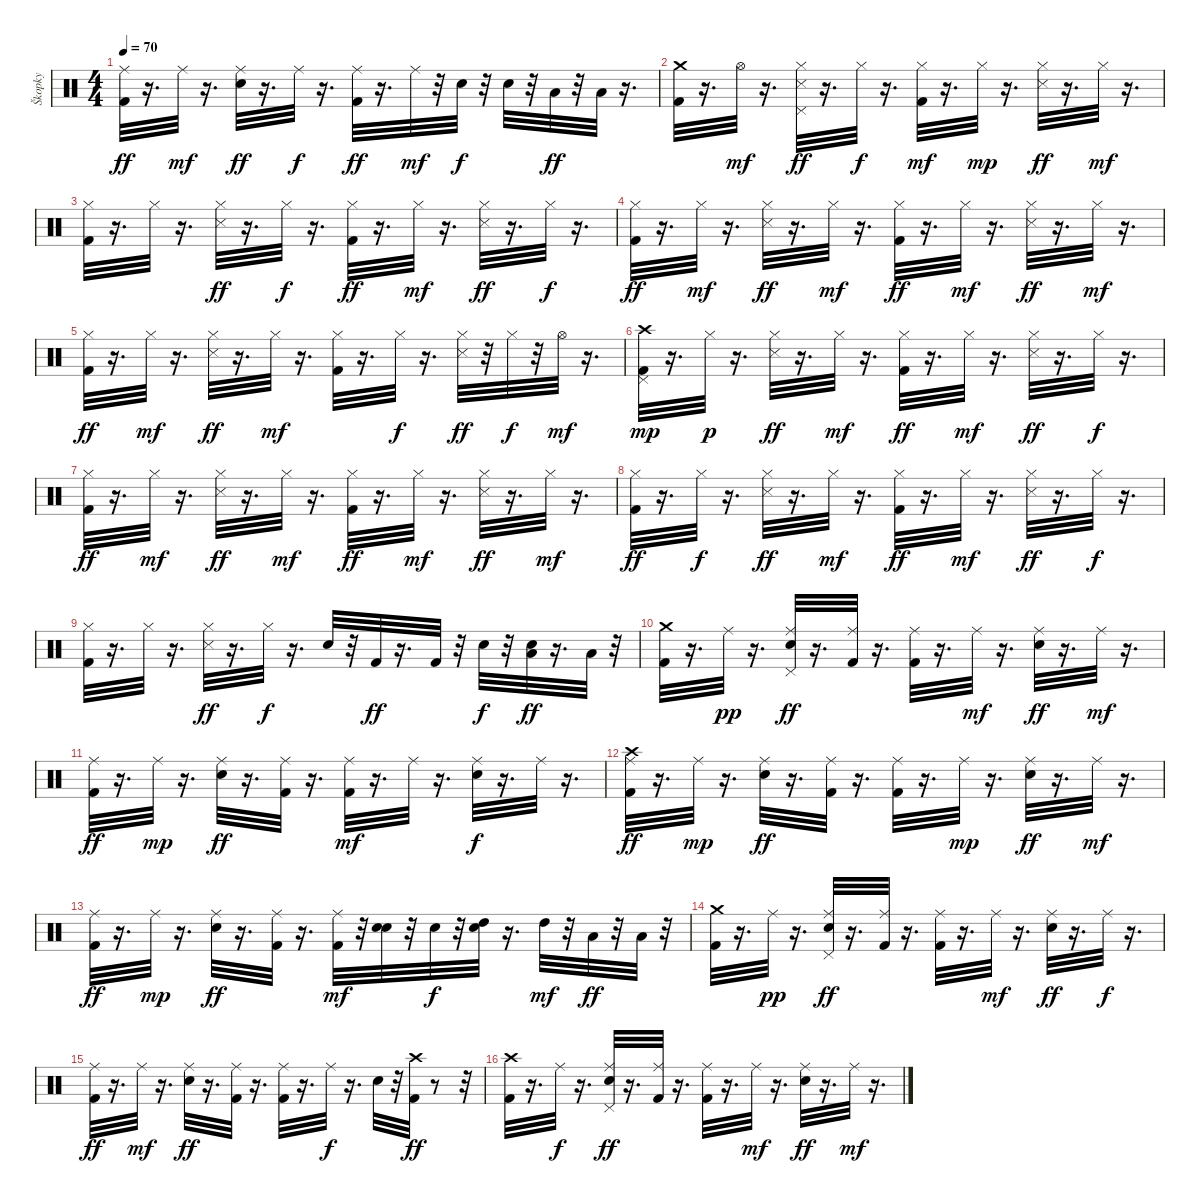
\track ("Škopky" "Škopky") {instrument percussion}
\staff {score}
\articulation defaults
\ts (4 4)
\tempo 70
\clef neutral
\ks c
("Kick (hit) 2" "Ride (middle)").32{dy ff} r.16{d} "Ride (middle)".32{dy mf} r.16{d} ("Snare (hit) 2" "Ride (middle)").32{dy ff} r.16{d} "Ride (middle)".32{dy f} r.16{d} ("Kick (hit) 2" "Ride (middle)").32{dy ff} r.16{d} "Ride (middle)".32{dy mf} r.32 "Snare (hit) 2".32{dy f} r.32 "Snare (hit) 2".32 r.32 "Low Tom (hit)".32{dy ff} r.32 "Low Floor Tom (hit)".32 r.16{d} |
("Kick (hit) 2" "Crash medium (hit)").32 r.16{d} "Hi-Hat (open)".32{dy mf} r.16{d} ("Pedal Hi-Hat (hit)" "Hi-Hat (closed)" "Snare (side stick) 3").32{dy ff} r.16{d} "Hi-Hat (closed)".32{dy f} r.16{d} ("Kick (hit) 2" "Hi-Hat (closed)").32{dy mf} r.16{d} "Hi-Hat (closed)".32{dy mp} r.16{d} ("Hi-Hat (closed)" "Snare (side stick) 3").32{dy ff} r.16{d} "Hi-Hat (closed)".32{dy mf} r.16{d} |
("Kick (hit) 2" "Hi-Hat (closed)").32 r.16{d} "Hi-Hat (closed)".32 r.16{d} ("Hi-Hat (closed)" "Snare (side stick) 3").32{dy ff} r.16{d} "Hi-Hat (closed)".32{dy f} r.16{d} ("Kick (hit) 2" "Hi-Hat (closed)").32{dy ff} r.16{d} "Hi-Hat (closed)".32{dy mf} r.16{d} ("Hi-Hat (closed)" "Snare (side stick) 3").32{dy ff} r.16{d} "Hi-Hat (closed)".32{dy f} r.16{d} |
("Kick (hit) 2" "Hi-Hat (closed)").32{dy ff} r.16{d} "Hi-Hat (closed)".32{dy mf} r.16{d} ("Hi-Hat (closed)" "Snare (side stick) 3").32{dy ff} r.16{d} "Hi-Hat (closed)".32{dy mf} r.16{d} ("Kick (hit) 2" "Hi-Hat (closed)").32{dy ff} r.16{d} "Hi-Hat (closed)".32{dy mf} r.16{d} ("Hi-Hat (closed)" "Snare (side stick) 3").32{dy ff} r.16{d} "Hi-Hat (closed)".32{dy mf} r.16{d} |
("Kick (hit) 2" "Hi-Hat (closed)").32{dy ff} r.16{d} "Hi-Hat (closed)".32{dy mf} r.16{d} ("Hi-Hat (closed)" "Snare (side stick) 3").32{dy ff} r.16{d} "Hi-Hat (closed)".32{dy mf} r.16{d} ("Kick (hit) 2" "Hi-Hat (closed)").32 r.16{d} "Hi-Hat (closed)".32{dy f} r.16{d} ("Hi-Hat (closed)" "Snare (side stick) 3").32{dy ff} r.32 "Hi-Hat (closed)".32{dy f} r.32 "Hi-Hat (open)".32{dy mf} r.16{d} |
("Pedal Hi-Hat (hit)" "Kick (hit) 2" "Crash high (hit)").32{dy mp} r.16{d} "Hi-Hat (closed)".32{dy p} r.16{d} ("Hi-Hat (closed)" "Snare (side stick) 3").32{dy ff} r.16{d} "Hi-Hat (closed)".32{dy mf} r.16{d} ("Kick (hit) 2" "Hi-Hat (closed)").32{dy ff} r.16{d} "Hi-Hat (closed)".32{dy mf} r.16{d} ("Hi-Hat (closed)" "Snare (side stick) 3").32{dy ff} r.16{d} "Hi-Hat (closed)".32{dy f} r.16{d} |
("Kick (hit) 2" "Hi-Hat (closed)").32{dy ff} r.16{d} "Hi-Hat (closed)".32{dy mf} r.16{d} ("Hi-Hat (closed)" "Snare (side stick) 3").32{dy ff} r.16{d} "Hi-Hat (closed)".32{dy mf} r.16{d} ("Kick (hit) 2" "Hi-Hat (closed)").32{dy ff} r.16{d} "Hi-Hat (closed)".32{dy mf} r.16{d} ("Hi-Hat (closed)" "Snare (side stick) 3").32{dy ff} r.16{d} "Hi-Hat (closed)".32{dy mf} r.16{d} |
("Kick (hit) 2" "Hi-Hat (closed)").32{dy ff} r.16{d} "Hi-Hat (closed)".32{dy f} r.16{d} ("Hi-Hat (closed)" "Snare (side stick) 3").32{dy ff} r.16{d} "Hi-Hat (closed)".32{dy mf} r.16{d} ("Kick (hit) 2" "Hi-Hat (closed)").32{dy ff} r.16{d} "Hi-Hat (closed)".32{dy mf} r.16{d} ("Hi-Hat (closed)" "Snare (side stick) 3").32{dy ff} r.16{d} "Hi-Hat (closed)".32{dy f} r.16{d} |
("Kick (hit) 2" "Hi-Hat (closed)").32 r.16{d} "Hi-Hat (closed)".32 r.16{d} ("Snare (side stick) 3" "Hi-Hat (closed)").32{dy ff} r.16{d} "Hi-Hat (closed)".32{dy f} r.16{d} "Snare (hit) 2".32 r.32 "Kick (hit) 2".32{dy ff} r.16{d} "Kick (hit) 2".32 r.32 "Snare (hit) 2".32{dy f} r.32 ("Snare (hit) 2" "Low Tom (hit)").32{dy ff} r.16{d} "Low Floor Tom (hit)".32 r.32 |
("Crash medium (hit)" "Kick (hit) 2").32 r.16{d} "Ride (middle)".32{dy pp} r.16{d} ("Pedal Hi-Hat (hit)" "Snare (hit) 2" "Ride (middle)").32{dy ff} r.16{d} ("Kick (hit) 2" "Ride (middle)").32 r.16{d} ("Kick (hit) 2" "Ride (middle)").32 r.16{d} "Ride (middle)".32{dy mf} r.16{d} ("Snare (hit) 2" "Ride (middle)").32{dy ff} r.16{d} "Ride (middle)".32{dy mf} r.16{d} |
("Kick (hit) 2" "Ride (middle)").32{dy ff} r.16{d} "Ride (middle)".32{dy mp} r.16{d} ("Snare (hit) 2" "Ride (middle)").32{dy ff} r.16{d} ("Kick (hit) 2" "Ride (middle)").32 r.16{d} ("Kick (hit) 2" "Ride (middle)").32{dy mf} r.16{d} "Ride (middle)".32 r.16{d} ("Snare (hit) 2" "Ride (middle)").32{dy f} r.16{d} "Ride (middle)".32 r.16{d} |
("Kick (hit) 2" "Ride (middle)" "Crash high (hit)").32{dy ff} r.16{d} "Ride (middle)".32{dy mp} r.16{d} ("Snare (hit) 2" "Ride (middle)").32{dy ff} r.16{d} ("Kick (hit) 2" "Ride (middle)").32 r.16{d} ("Ride (middle)" "Kick (hit) 2").32 r.16{d} "Ride (middle)".32{dy mp} r.16{d} ("Snare (hit) 2" "Ride (middle)").32{dy ff} r.16{d} "Ride (middle)".32{dy mf} r.16{d} |
("Kick (hit) 2" "Ride (middle)").32{dy ff} r.16{d} "Ride (middle)".32{dy mp} r.16{d} ("Snare (hit) 2" "Ride (middle)").32{dy ff} r.16{d} ("Kick (hit) 2" "Ride (middle)").32 r.16{d} ("Kick (hit) 2" "Ride (middle)").32{dy mf} r.32 ("Snare (hit) 2" "Snare (hit) 2").32 r.32 "Snare (hit) 2".32{dy f} r.32 ("Snare (hit) 2" "High Tom (hit)").32 r.16{d} "High Tom (hit)".32{dy mf} r.32 "Low Tom (hit)".32{dy ff} r.32 "Low Tom (hit)".32 r.32 |
("Kick (hit) 2" "Crash medium (hit)").32 r.16{d} "Ride (middle)".32{dy pp} r.16{d} ("Pedal Hi-Hat (hit)" "Snare (hit) 2" "Ride (middle)").32{dy ff} r.16{d} ("Kick (hit) 2" "Ride (middle)").32 r.16{d} ("Kick (hit) 2" "Ride (middle)").32 r.16{d} "Ride (middle)".32{dy mf} r.16{d} ("Ride (middle)" "Snare (hit) 2").32{dy ff} r.16{d} "Ride (middle)".32{dy f} r.16{d} |
("Kick (hit) 2" "Ride (middle)").32{dy ff} r.16{d} "Ride (middle)".32{dy mf} r.16{d} ("Snare (hit) 2" "Ride (middle)").32{dy ff} r.16{d} ("Kick (hit) 2" "Ride (middle)").32 r.16{d} ("Kick (hit) 2" "Ride (middle)").32 r.16{d} "Ride (middle)".32{dy f} r.16{d} "Snare (hit) 2".32 r.32 ("Kick (hit) 2" "Crash high (hit)").32{dy ff} r.8 r.32 |
("Kick (hit) 2" "Crash high (hit)").32 r.16{d} "Ride (middle)".32{dy f} r.16{d} ("Pedal Hi-Hat (hit)" "Snare (hit) 2" "Ride (middle)").32{dy ff} r.16{d} ("Kick (hit) 2" "Ride (middle)").32 r.16{d} ("Kick (hit) 2" "Ride (middle)").32 r.16{d} "Ride (middle)".32{dy mf} r.16{d} ("Snare (hit) 2" "Ride (middle)").32{dy ff} r.16{d} "Ride (middle)".32{dy mf} r.16{d}
